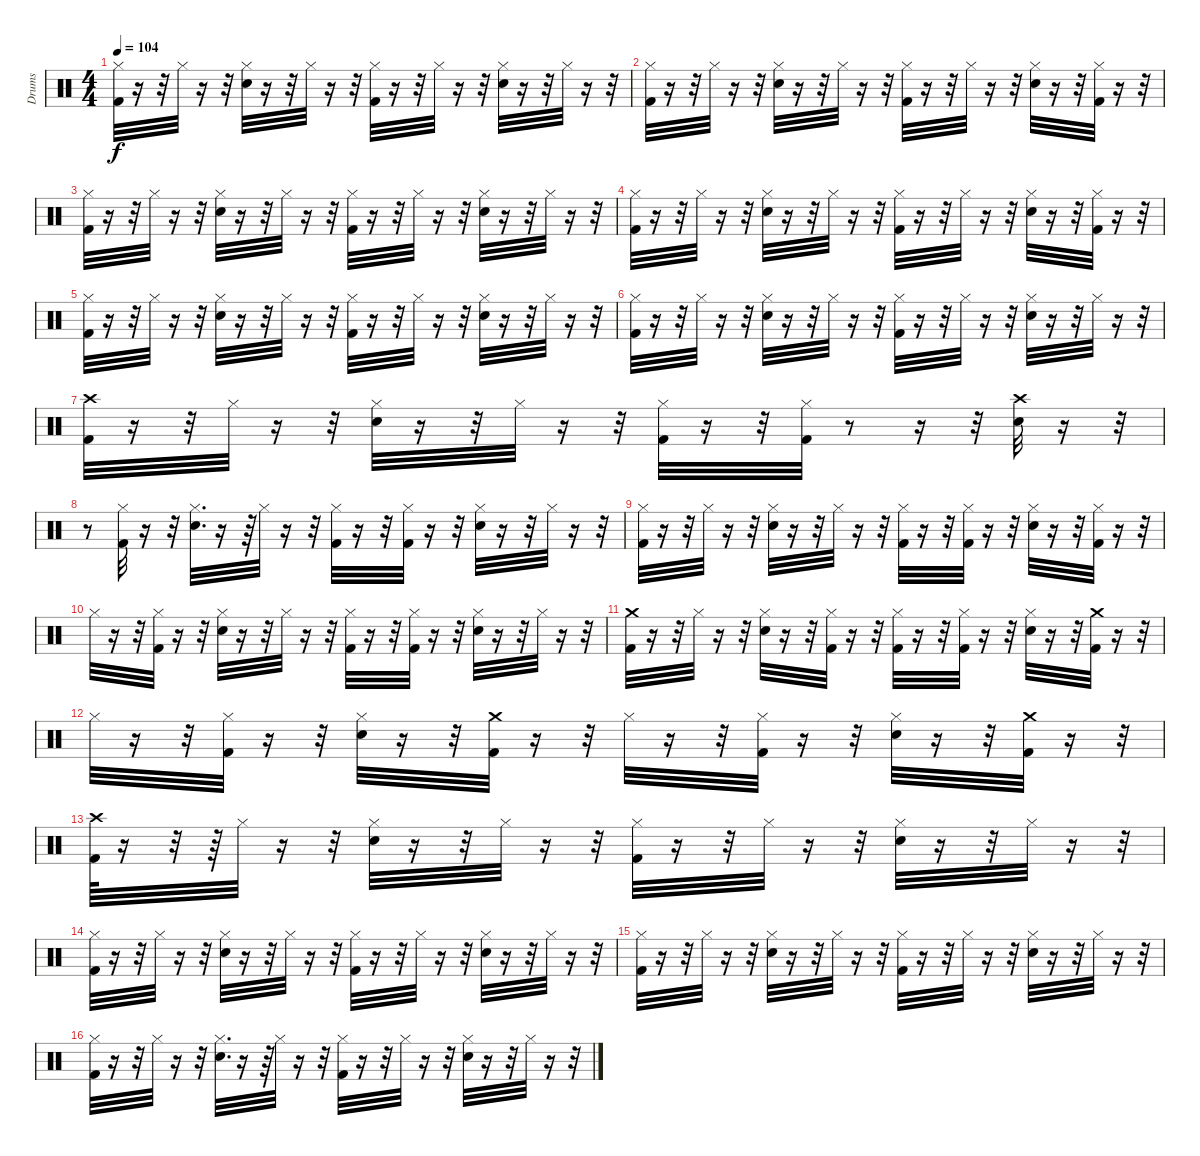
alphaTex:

\track ("Drums" "Drums") {instrument percussion}
\staff {score}
\articulation defaults
\ts (4 4)
\tempo 104
\clef neutral
\ks c
("Hi-Hat (closed)" "Kick (hit) 2").32{dy f} r.16 r.32 "Hi-Hat (closed)".32 r.16 r.32 ("Hi-Hat (closed)" "Snare (hit) 2").32 r.16 r.32 "Hi-Hat (closed)".32 r.16 r.32 ("Hi-Hat (closed)" "Kick (hit) 2").32 r.16 r.32 "Hi-Hat (closed)".32 r.16 r.32 ("Hi-Hat (closed)" "Snare (hit) 2").32 r.16 r.32 "Hi-Hat (closed)".32 r.16 r.32 |
("Hi-Hat (closed)" "Kick (hit) 2").32 r.16 r.32 "Hi-Hat (closed)".32 r.16 r.32 ("Hi-Hat (closed)" "Snare (hit) 2").32 r.16 r.32 "Hi-Hat (closed)".32 r.16 r.32 ("Hi-Hat (closed)" "Kick (hit) 2").32 r.16 r.32 "Hi-Hat (closed)".32 r.16 r.32 ("Hi-Hat (closed)" "Snare (hit) 2").32 r.16 r.32 ("Hi-Hat (closed)" "Kick (hit) 2").32 r.16 r.32 |
("Hi-Hat (closed)" "Kick (hit) 2").32 r.16 r.32 "Hi-Hat (closed)".32 r.16 r.32 ("Hi-Hat (closed)" "Snare (hit) 2").32 r.16 r.32 "Hi-Hat (closed)".32 r.16 r.32 ("Hi-Hat (closed)" "Kick (hit) 2").32 r.16 r.32 "Hi-Hat (closed)".32 r.16 r.32 ("Hi-Hat (closed)" "Snare (hit) 2").32 r.16 r.32 "Hi-Hat (closed)".32 r.16 r.32 |
("Hi-Hat (closed)" "Kick (hit) 2").32 r.16 r.32 "Hi-Hat (closed)".32 r.16 r.32 ("Hi-Hat (closed)" "Snare (hit) 2").32 r.16 r.32 "Hi-Hat (closed)".32 r.16 r.32 ("Hi-Hat (closed)" "Kick (hit) 2").32 r.16 r.32 "Hi-Hat (closed)".32 r.16 r.32 ("Hi-Hat (closed)" "Snare (hit) 2").32 r.16 r.32 ("Hi-Hat (closed)" "Kick (hit) 2").32 r.16 r.32 |
("Hi-Hat (closed)" "Kick (hit) 2").32 r.16 r.32 "Hi-Hat (closed)".32 r.16 r.32 ("Hi-Hat (closed)" "Snare (hit) 2").32 r.16 r.32 "Hi-Hat (closed)".32 r.16 r.32 ("Hi-Hat (closed)" "Kick (hit) 2").32 r.16 r.32 "Hi-Hat (closed)".32 r.16 r.32 ("Hi-Hat (closed)" "Snare (hit) 2").32 r.16 r.32 "Hi-Hat (closed)".32 r.16 r.32 |
("Hi-Hat (closed)" "Kick (hit) 2").32 r.16 r.32 "Hi-Hat (closed)".32 r.16 r.32 ("Hi-Hat (closed)" "Snare (hit) 2").32 r.16 r.32 "Hi-Hat (closed)".32 r.16 r.32 ("Hi-Hat (closed)" "Kick (hit) 2").32 r.16 r.32 "Hi-Hat (closed)".32 r.16 r.32 ("Hi-Hat (closed)" "Snare (hit) 2").32 r.16 r.32 "Hi-Hat (closed)".32 r.16 r.32 |
("Crash high (hit)" "Kick (hit) 2").32 r.16 r.32 "Hi-Hat (closed)".32 r.16 r.32 ("Hi-Hat (closed)" "Snare (hit) 2").32 r.16 r.32 "Hi-Hat (closed)".32 r.16 r.32 ("Hi-Hat (closed)" "Kick (hit) 2").32 r.16 r.32 ("Hi-Hat (closed)" "Kick (hit) 2").32 r.8 r.16 r.32 ("Crash high (hit)" "Snare (hit) 2").32 r.16 r.32 |
r.8 ("Hi-Hat (closed)" "Kick (hit) 2").32 r.16 r.32 ("Hi-Hat (closed)" "Snare (hit) 2").32{d} r.16 r.64 "Hi-Hat (closed)".32 r.16 r.32 ("Hi-Hat (closed)" "Kick (hit) 2").32 r.16 r.32 ("Hi-Hat (closed)" "Kick (hit) 2").32 r.16 r.32 ("Hi-Hat (closed)" "Snare (hit) 2").32 r.16 r.32 "Hi-Hat (closed)".32 r.16 r.32 |
("Hi-Hat (closed)" "Kick (hit) 2").32 r.16 r.32 "Hi-Hat (closed)".32 r.16 r.32 ("Hi-Hat (closed)" "Snare (hit) 2").32 r.16 r.32 "Hi-Hat (closed)".32 r.16 r.32 ("Hi-Hat (closed)" "Kick (hit) 2").32 r.16 r.32 ("Hi-Hat (closed)" "Kick (hit) 2").32 r.16 r.32 ("Hi-Hat (closed)" "Snare (hit) 2").32 r.16 r.32 ("Hi-Hat (closed)" "Kick (hit) 2").32 r.16 r.32 |
"Hi-Hat (closed)".32 r.16 r.32 ("Hi-Hat (closed)" "Kick (hit) 2").32 r.16 r.32 ("Hi-Hat (closed)" "Snare (hit) 2").32 r.16 r.32 "Hi-Hat (closed)".32 r.16 r.32 ("Hi-Hat (closed)" "Kick (hit) 2").32 r.16 r.32 ("Hi-Hat (closed)" "Kick (hit) 2").32 r.16 r.32 ("Hi-Hat (closed)" "Snare (hit) 2").32 r.16 r.32 "Hi-Hat (closed)".32 r.16 r.32 |
("Crash medium (hit)" "Kick (hit) 2").32 r.16 r.32 "Hi-Hat (closed)".32 r.16 r.32 ("Hi-Hat (closed)" "Snare (hit) 2").32 r.16 r.32 ("Hi-Hat (closed)" "Kick (hit) 2").32 r.16 r.32 ("Hi-Hat (closed)" "Kick (hit) 2").32 r.16 r.32 ("Hi-Hat (closed)" "Kick (hit) 2").32 r.16 r.32 ("Hi-Hat (closed)" "Snare (hit) 2").32 r.16 r.32 ("Crash medium (hit)" "Kick (hit) 2").32 r.16 r.32 |
"Hi-Hat (closed)".32 r.16 r.32 ("Hi-Hat (closed)" "Kick (hit) 2").32 r.16 r.32 ("Hi-Hat (closed)" "Snare (hit) 2").32 r.16 r.32 ("Crash medium (hit)" "Kick (hit) 2").32 r.16 r.32 "Hi-Hat (closed)".32 r.16 r.32 ("Hi-Hat (closed)" "Kick (hit) 2").32 r.16 r.32 ("Hi-Hat (closed)" "Snare (hit) 2").32 r.16 r.32 ("Crash medium (hit)" "Kick (hit) 2").32 r.16 r.32 |
("Crash high (hit)" "Kick (hit) 2").64 r.16 r.32 r.64 "Hi-Hat (closed)".32 r.16 r.32 ("Hi-Hat (closed)" "Snare (hit) 2").32 r.16 r.32 "Hi-Hat (closed)".32 r.16 r.32 ("Hi-Hat (closed)" "Kick (hit) 2").32 r.16 r.32 "Hi-Hat (closed)".32 r.16 r.32 ("Hi-Hat (closed)" "Snare (hit) 2").32 r.16 r.32 "Hi-Hat (closed)".32 r.16 r.32 |
("Hi-Hat (closed)" "Kick (hit) 2").32 r.16 r.32 "Hi-Hat (closed)".32 r.16 r.32 ("Hi-Hat (closed)" "Snare (hit) 2").32 r.16 r.32 "Hi-Hat (closed)".32 r.16 r.32 ("Hi-Hat (closed)" "Kick (hit) 2").32 r.16 r.32 "Hi-Hat (closed)".32 r.16 r.32 ("Hi-Hat (closed)" "Snare (hit) 2").32 r.16 r.32 "Hi-Hat (closed)".32 r.16 r.32 |
("Hi-Hat (closed)" "Kick (hit) 2").32 r.16 r.32 "Hi-Hat (closed)".32 r.16 r.32 ("Hi-Hat (closed)" "Snare (hit) 2").32 r.16 r.32 "Hi-Hat (closed)".32 r.16 r.32 ("Hi-Hat (closed)" "Kick (hit) 2").32 r.16 r.32 "Hi-Hat (closed)".32 r.16 r.32 ("Hi-Hat (closed)" "Snare (hit) 2").32 r.16 r.32 "Hi-Hat (closed)".32 r.16 r.32 |
("Hi-Hat (closed)" "Kick (hit) 2").32 r.16 r.32 "Hi-Hat (closed)".32 r.16 r.32 ("Hi-Hat (closed)" "Snare (hit) 2").32{d} r.16 r.64 "Hi-Hat (closed)".32 r.16 r.32 ("Hi-Hat (closed)" "Kick (hit) 2").32 r.16 r.32 "Hi-Hat (closed)".32 r.16 r.32 ("Hi-Hat (closed)" "Snare (hit) 2").32 r.16 r.32 "Hi-Hat (closed)".32 r.16 r.32
